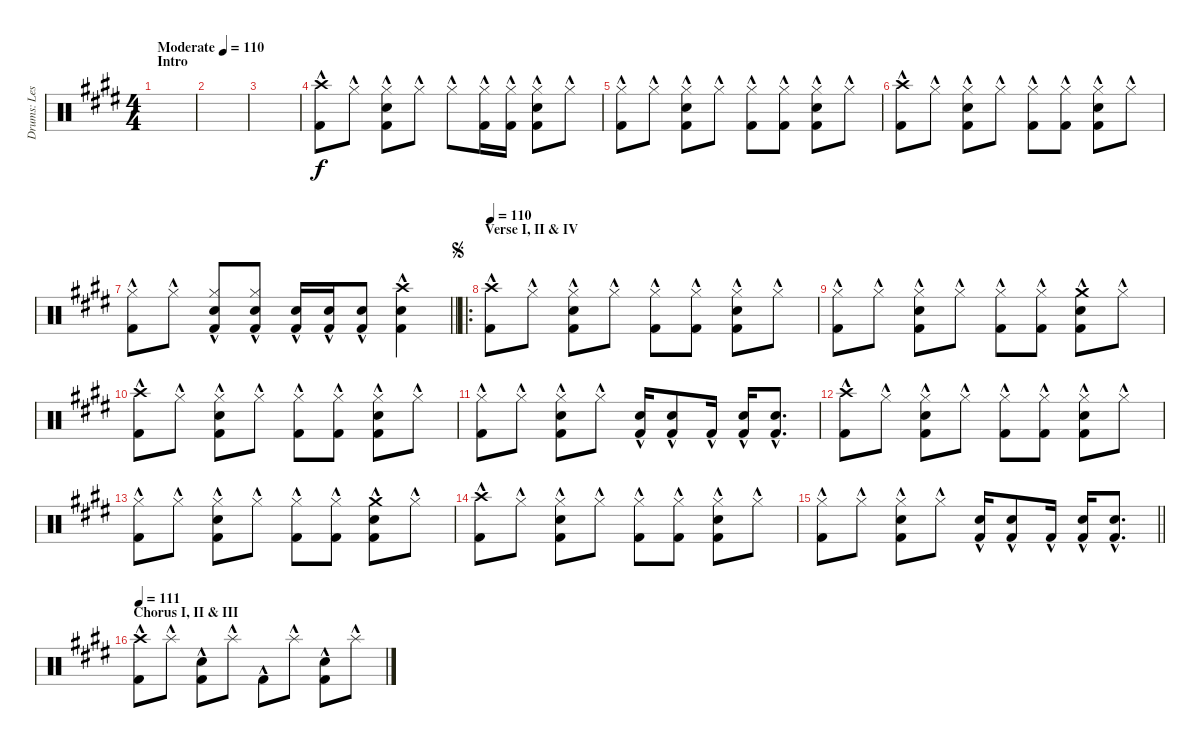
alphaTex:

\track ("Drums: Les" "Drums: Les") {instrument percussion}
\staff {score}
\articulation defaults
\ts (4 4)
\section ("" "Intro")
\tempo (110 "Moderate")
\clef neutral
\ks e
|
|
|
("Crash high (hit)"{hac} "Kick (hit) 2"{hac}).8 "Hi-Hat (closed)"{hac}.8 ("Hi-Hat (closed)"{hac} "Snare (hit) 2"{hac} "Kick (hit) 2"{hac}).8 "Hi-Hat (closed)"{hac}.8 "Hi-Hat (closed)"{hac}.8 ("Hi-Hat (closed)"{hac} "Kick (hit) 2"{hac}).16 ("Hi-Hat (closed)"{hac} "Kick (hit) 2"{hac}).16 ("Hi-Hat (closed)"{hac} "Snare (hit) 2"{hac} "Kick (hit) 2"{hac}).8 "Hi-Hat (closed)"{hac}.8 |
("Hi-Hat (closed)"{hac} "Kick (hit) 2"{hac}).8 "Hi-Hat (closed)"{hac}.8 ("Hi-Hat (closed)"{hac} "Snare (hit) 2"{hac} "Kick (hit) 2"{hac}).8 "Hi-Hat (closed)"{hac}.8 ("Hi-Hat (closed)"{hac} "Kick (hit) 2"{hac}).8 ("Hi-Hat (closed)"{hac} "Kick (hit) 2"{hac}).8 ("Hi-Hat (closed)"{hac} "Snare (hit) 2"{hac} "Kick (hit) 2"{hac}).8 "Hi-Hat (closed)"{hac}.8 |
("Crash high (hit)"{hac} "Kick (hit) 2"{hac}).8 "Hi-Hat (closed)"{hac}.8 ("Hi-Hat (closed)"{hac} "Snare (hit) 2"{hac} "Kick (hit) 2"{hac}).8 "Hi-Hat (closed)"{hac}.8 ("Hi-Hat (closed)"{hac} "Kick (hit) 2"{hac}).8 ("Hi-Hat (closed)"{hac} "Kick (hit) 2"{hac}).8 ("Hi-Hat (closed)"{hac} "Snare (hit) 2"{hac} "Kick (hit) 2"{hac}).8 "Hi-Hat (closed)"{hac}.8 |
\barLineRight lightlight
("Hi-Hat (closed)"{hac} "Kick (hit) 2"{hac}).8 "Hi-Hat (closed)"{hac}.8 ("Hi-Hat (closed)"{hac} "Snare (hit) 2"{hac} "Kick (hit) 2"{hac}).8 ("Hi-Hat (closed)"{hac} "Snare (hit) 2"{hac} "Kick (hit) 2"{hac}).8 ("Snare (hit) 2"{hac} "Kick (hit) 2"{hac}).16 ("Snare (hit) 2"{hac} "Kick (hit) 2"{hac}).16 ("Snare (hit) 2"{hac} "Kick (hit) 2"{hac}).8 ("Crash high (hit)"{hac} "Snare (hit) 2"{hac} "Kick (hit) 2"{hac}).4 |
\ro
\section ("" "Verse I, II & IV")
\jump segno
\tempo 110
("Crash high (hit)"{hac} "Kick (hit) 2"{hac}).8 "Hi-Hat (closed)"{hac}.8 ("Hi-Hat (closed)"{hac} "Snare (hit) 2"{hac} "Kick (hit) 2"{hac}).8 "Hi-Hat (closed)"{hac}.8 ("Hi-Hat (closed)"{hac} "Kick (hit) 2"{hac}).8 ("Hi-Hat (closed)"{hac} "Kick (hit) 2"{hac}).8 ("Hi-Hat (closed)"{hac} "Snare (hit) 2"{hac} "Kick (hit) 2"{hac}).8 "Hi-Hat (closed)"{hac}.8 |
("Hi-Hat (closed)"{hac} "Kick (hit) 2"{hac}).8 "Hi-Hat (closed)"{hac}.8 ("Hi-Hat (closed)"{hac} "Snare (hit) 2"{hac} "Kick (hit) 2"{hac}).8 "Hi-Hat (closed)"{hac}.8 ("Hi-Hat (closed)"{hac} "Kick (hit) 2"{hac}).8 ("Hi-Hat (closed)"{hac} "Kick (hit) 2"{hac}).8 ("Crash medium (hit)"{hac} "Snare (hit) 2"{hac} "Kick (hit) 2"{hac}).8 "Hi-Hat (closed)"{hac}.8 |
("Crash high (hit)"{hac} "Kick (hit) 2"{hac}).8 "Hi-Hat (closed)"{hac}.8 ("Hi-Hat (closed)"{hac} "Snare (hit) 2"{hac} "Kick (hit) 2"{hac}).8 "Hi-Hat (closed)"{hac}.8 ("Hi-Hat (closed)"{hac} "Kick (hit) 2"{hac}).8 ("Hi-Hat (closed)"{hac} "Kick (hit) 2"{hac}).8 ("Hi-Hat (closed)"{hac} "Snare (hit) 2"{hac} "Kick (hit) 2"{hac}).8 "Hi-Hat (closed)"{hac}.8 |
("Hi-Hat (closed)"{hac} "Kick (hit) 2"{hac}).8 "Hi-Hat (closed)"{hac}.8 ("Hi-Hat (closed)"{hac} "Snare (hit) 2"{hac} "Kick (hit) 2"{hac}).8 "Hi-Hat (closed)"{hac}.8 ("Snare (hit) 2"{hac} "Kick (hit) 2"{hac}).16 ("Snare (hit) 2"{hac} "Kick (hit) 2"{hac}).8 "Kick (hit) 2"{hac}.16 ("Snare (hit) 2"{hac} "Kick (hit) 2"{hac}).16 ("Snare (hit) 2"{hac} "Kick (hit) 2"{hac}).8{d} |
("Crash high (hit)"{hac} "Kick (hit) 2"{hac}).8 "Hi-Hat (closed)"{hac}.8 ("Hi-Hat (closed)"{hac} "Snare (hit) 2"{hac} "Kick (hit) 2"{hac}).8 "Hi-Hat (closed)"{hac}.8 ("Hi-Hat (closed)"{hac} "Kick (hit) 2"{hac}).8 ("Hi-Hat (closed)"{hac} "Kick (hit) 2"{hac}).8 ("Hi-Hat (closed)"{hac} "Snare (hit) 2"{hac} "Kick (hit) 2"{hac}).8 "Hi-Hat (closed)"{hac}.8 |
("Hi-Hat (closed)"{hac} "Kick (hit) 2"{hac}).8 "Hi-Hat (closed)"{hac}.8 ("Hi-Hat (closed)"{hac} "Snare (hit) 2"{hac} "Kick (hit) 2"{hac}).8 "Hi-Hat (closed)"{hac}.8 ("Hi-Hat (closed)"{hac} "Kick (hit) 2"{hac}).8 ("Hi-Hat (closed)"{hac} "Kick (hit) 2"{hac}).8 ("Crash medium (hit)"{hac} "Snare (hit) 2"{hac} "Kick (hit) 2"{hac}).8 "Hi-Hat (closed)"{hac}.8 |
("Crash high (hit)"{hac} "Kick (hit) 2"{hac}).8 "Hi-Hat (closed)"{hac}.8 ("Hi-Hat (closed)"{hac} "Snare (hit) 2"{hac} "Kick (hit) 2"{hac}).8 "Hi-Hat (closed)"{hac}.8 ("Hi-Hat (closed)"{hac} "Kick (hit) 2"{hac}).8 ("Hi-Hat (closed)"{hac} "Kick (hit) 2"{hac}).8 ("Hi-Hat (closed)"{hac} "Snare (hit) 2"{hac} "Kick (hit) 2"{hac}).8 "Hi-Hat (closed)"{hac}.8 |
\barLineRight lightlight
("Hi-Hat (closed)"{hac} "Kick (hit) 2"{hac}).8 "Hi-Hat (closed)"{hac}.8 ("Hi-Hat (closed)"{hac} "Snare (hit) 2"{hac} "Kick (hit) 2"{hac}).8 "Hi-Hat (closed)"{hac}.8 ("Snare (hit) 2"{hac} "Kick (hit) 2"{hac}).16 ("Snare (hit) 2"{hac} "Kick (hit) 2"{hac}).8 "Kick (hit) 2"{hac}.16 ("Snare (hit) 2"{hac} "Kick (hit) 2"{hac}).16 ("Snare (hit) 2"{hac} "Kick (hit) 2"{hac}).8{d} |
\section ("" "Chorus I, II & III")
\tempo 111
("Crash high (hit)"{hac} "Kick (hit) 2"{hac}).8 "Splash (hit)"{hac}.8 ("Snare (hit) 2"{hac} "Kick (hit) 2"{hac}).8 "Splash (hit)"{hac}.8 "Kick (hit) 2"{hac}.8 "Splash (hit)"{hac}.8 ("Snare (hit) 2"{hac} "Kick (hit) 2"{hac}).8 "Splash (hit)"{hac}.8
